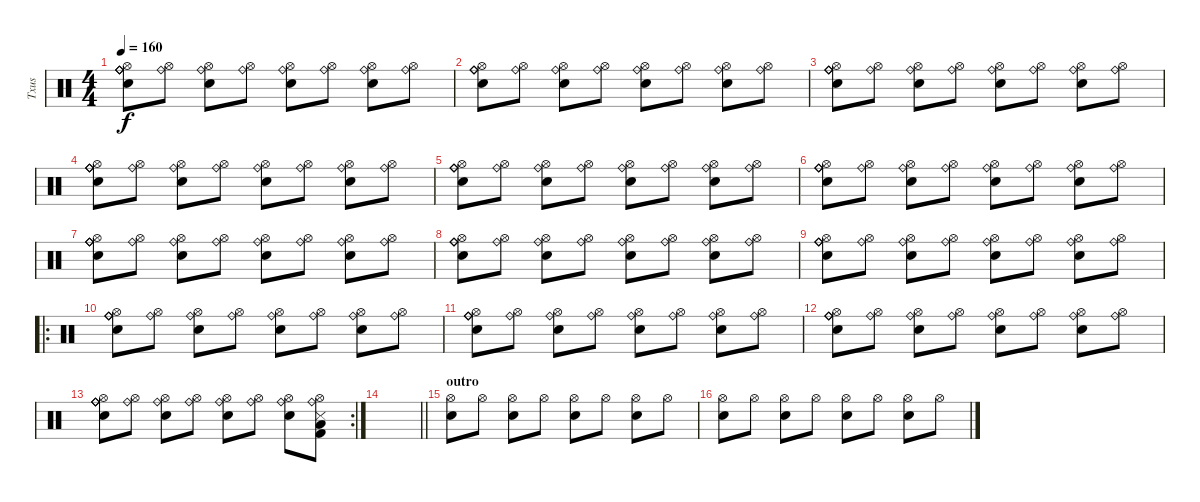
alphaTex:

\track ("Txus" "Txus") {instrument percussion}
\staff {score}
\articulation defaults
\ts (4 4)
\tempo 160
\clef neutral
\ks c
("Snare (hit) 2" "Hi-Hat (open)" "Ride (bell)" "Ride (bell)" "Ride (bell)").8{dy f} ("Hi-Hat (open)" "Ride (bell)").8 ("Snare (hit) 2" "Hi-Hat (open)" "Ride (bell)").8 ("Hi-Hat (open)" "Ride (bell)").8 ("Snare (hit) 2" "Hi-Hat (open)" "Ride (bell)").8 ("Hi-Hat (open)" "Ride (bell)").8 ("Snare (hit) 2" "Hi-Hat (open)" "Ride (bell)").8 ("Hi-Hat (open)" "Ride (bell)").8 |
("Snare (hit) 2" "Hi-Hat (open)" "Ride (bell)" "Ride (bell)" "Ride (bell)").8 ("Hi-Hat (open)" "Ride (bell)").8 ("Snare (hit) 2" "Hi-Hat (open)" "Ride (bell)").8 ("Hi-Hat (open)" "Ride (bell)").8 ("Snare (hit) 2" "Hi-Hat (open)" "Ride (bell)").8 ("Hi-Hat (open)" "Ride (bell)").8 ("Snare (hit) 2" "Hi-Hat (open)" "Ride (bell)").8 ("Hi-Hat (open)" "Ride (bell)").8 |
("Snare (hit) 2" "Hi-Hat (open)" "Ride (bell)" "Ride (bell)" "Ride (bell)").8 ("Hi-Hat (open)" "Ride (bell)").8 ("Snare (hit) 2" "Hi-Hat (open)" "Ride (bell)").8 ("Hi-Hat (open)" "Ride (bell)").8 ("Snare (hit) 2" "Hi-Hat (open)" "Ride (bell)").8 ("Hi-Hat (open)" "Ride (bell)").8 ("Snare (hit) 2" "Hi-Hat (open)" "Ride (bell)").8 ("Hi-Hat (open)" "Ride (bell)").8 |
("Snare (hit) 2" "Hi-Hat (open)" "Ride (bell)" "Ride (bell)" "Ride (bell)").8 ("Hi-Hat (open)" "Ride (bell)").8 ("Snare (hit) 2" "Hi-Hat (open)" "Ride (bell)").8 ("Hi-Hat (open)" "Ride (bell)").8 ("Snare (hit) 2" "Hi-Hat (open)" "Ride (bell)").8 ("Hi-Hat (open)" "Ride (bell)").8 ("Snare (hit) 2" "Hi-Hat (open)" "Ride (bell)").8 ("Hi-Hat (open)" "Ride (bell)").8 |
("Snare (hit) 2" "Hi-Hat (open)" "Ride (bell)" "Ride (bell)" "Ride (bell)").8 ("Hi-Hat (open)" "Ride (bell)").8 ("Snare (hit) 2" "Hi-Hat (open)" "Ride (bell)").8 ("Hi-Hat (open)" "Ride (bell)").8 ("Snare (hit) 2" "Hi-Hat (open)" "Ride (bell)").8 ("Hi-Hat (open)" "Ride (bell)").8 ("Snare (hit) 2" "Hi-Hat (open)" "Ride (bell)").8 ("Hi-Hat (open)" "Ride (bell)").8 |
("Snare (hit) 2" "Hi-Hat (open)" "Ride (bell)" "Ride (bell)" "Ride (bell)").8 ("Hi-Hat (open)" "Ride (bell)").8 ("Snare (hit) 2" "Hi-Hat (open)" "Ride (bell)").8 ("Hi-Hat (open)" "Ride (bell)").8 ("Snare (hit) 2" "Hi-Hat (open)" "Ride (bell)").8 ("Hi-Hat (open)" "Ride (bell)").8 ("Snare (hit) 2" "Hi-Hat (open)" "Ride (bell)").8 ("Hi-Hat (open)" "Ride (bell)").8 |
("Snare (hit) 2" "Hi-Hat (open)" "Ride (bell)" "Ride (bell)" "Ride (bell)").8 ("Hi-Hat (open)" "Ride (bell)").8 ("Snare (hit) 2" "Hi-Hat (open)" "Ride (bell)").8 ("Hi-Hat (open)" "Ride (bell)").8 ("Snare (hit) 2" "Hi-Hat (open)" "Ride (bell)").8 ("Hi-Hat (open)" "Ride (bell)").8 ("Snare (hit) 2" "Hi-Hat (open)" "Ride (bell)").8 ("Hi-Hat (open)" "Ride (bell)").8 |
("Snare (hit) 2" "Hi-Hat (open)" "Ride (bell)" "Ride (bell)" "Ride (bell)").8 ("Hi-Hat (open)" "Ride (bell)").8 ("Snare (hit) 2" "Hi-Hat (open)" "Ride (bell)").8 ("Hi-Hat (open)" "Ride (bell)").8 ("Snare (hit) 2" "Hi-Hat (open)" "Ride (bell)").8 ("Hi-Hat (open)" "Ride (bell)").8 ("Snare (hit) 2" "Hi-Hat (open)" "Ride (bell)").8 ("Hi-Hat (open)" "Ride (bell)").8 |
("Snare (hit) 2" "Hi-Hat (open)" "Ride (bell)" "Ride (bell)" "Ride (bell)").8 ("Hi-Hat (open)" "Ride (bell)").8 ("Snare (hit) 2" "Hi-Hat (open)" "Ride (bell)").8 ("Hi-Hat (open)" "Ride (bell)").8 ("Snare (hit) 2" "Hi-Hat (open)" "Ride (bell)").8 ("Hi-Hat (open)" "Ride (bell)").8 ("Snare (hit) 2" "Hi-Hat (open)" "Ride (bell)").8 ("Hi-Hat (open)" "Ride (bell)").8 |
\ro
("Snare (hit) 2" "Hi-Hat (open)" "Ride (bell)" "Ride (bell)" "Ride (bell)").8 ("Hi-Hat (open)" "Ride (bell)").8 ("Snare (hit) 2" "Hi-Hat (open)" "Ride (bell)").8 ("Hi-Hat (open)" "Ride (bell)").8 ("Snare (hit) 2" "Hi-Hat (open)" "Ride (bell)").8 ("Hi-Hat (open)" "Ride (bell)").8 ("Snare (hit) 2" "Hi-Hat (open)" "Ride (bell)").8 ("Hi-Hat (open)" "Ride (bell)").8 |
("Snare (hit) 2" "Hi-Hat (open)" "Ride (bell)" "Ride (bell)" "Ride (bell)").8 ("Hi-Hat (open)" "Ride (bell)").8 ("Snare (hit) 2" "Hi-Hat (open)" "Ride (bell)").8 ("Hi-Hat (open)" "Ride (bell)").8 ("Snare (hit) 2" "Hi-Hat (open)" "Ride (bell)").8 ("Hi-Hat (open)" "Ride (bell)").8 ("Snare (hit) 2" "Hi-Hat (open)" "Ride (bell)").8 ("Hi-Hat (open)" "Ride (bell)").8 |
("Snare (hit) 2" "Hi-Hat (open)" "Ride (bell)" "Ride (bell)" "Ride (bell)").8 ("Hi-Hat (open)" "Ride (bell)").8 ("Snare (hit) 2" "Hi-Hat (open)" "Ride (bell)").8 ("Hi-Hat (open)" "Ride (bell)").8 ("Snare (hit) 2" "Hi-Hat (open)" "Ride (bell)").8 ("Hi-Hat (open)" "Ride (bell)").8 ("Snare (hit) 2" "Hi-Hat (open)" "Ride (bell)").8 ("Hi-Hat (open)" "Ride (bell)").8 |
\rc 2
("Snare (hit) 2" "Hi-Hat (open)" "Ride (bell)" "Ride (bell)" "Ride (bell)").8 ("Hi-Hat (open)" "Ride (bell)").8 ("Snare (hit) 2" "Hi-Hat (open)" "Ride (bell)").8 ("Hi-Hat (open)" "Ride (bell)").8 ("Snare (hit) 2" "Hi-Hat (open)" "Ride (bell)").8 ("Hi-Hat (open)" "Ride (bell)").8 ("Snare (hit) 2" "Hi-Hat (open)" "Ride (bell)").8 ("Kick (hit) 2" "Snare (side stick) 3" "Hi-Hat (open)" "Low Tom (hit)" "Ride (bell)").8 |
\barLineRight lightlight
|
\section ("" "outro")
("Snare (hit) 2" "Hi-Hat (open)").8 "Hi-Hat (open)".8 ("Snare (hit) 2" "Hi-Hat (open)").8 "Hi-Hat (open)".8 ("Snare (hit) 2" "Hi-Hat (open)").8 "Hi-Hat (open)".8 ("Snare (hit) 2" "Hi-Hat (open)").8 "Hi-Hat (open)".8 |
("Snare (hit) 2" "Hi-Hat (open)").8 "Hi-Hat (open)".8 ("Snare (hit) 2" "Hi-Hat (open)").8 "Hi-Hat (open)".8 ("Snare (hit) 2" "Hi-Hat (open)").8 "Hi-Hat (open)".8 ("Snare (hit) 2" "Hi-Hat (open)").8 "Hi-Hat (open)".8
